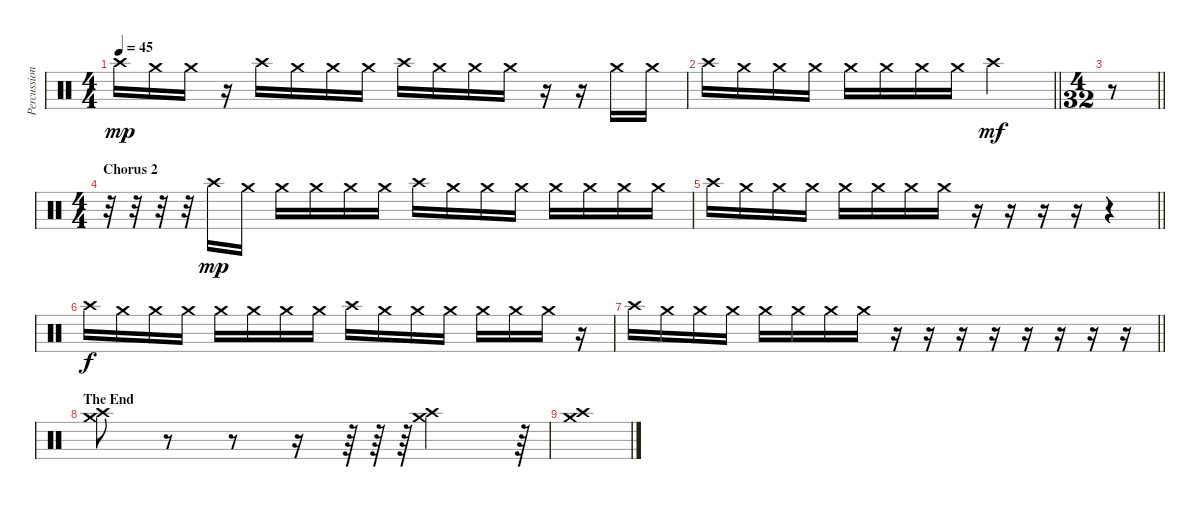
\track ("Percussioni" "Percussion") {instrument percussion}
\staff {score}
\articulation defaults
\ts (4 4)
\tempo 45
\clef neutral
\ks c "Crash high (hit)".16{dy mp} "Crash medium (hit)".16 "Crash medium (hit)".16
r.16 "Crash high (hit)".16 "Crash medium (hit)".16 "Crash medium (hit)".16 "Crash medium (hit)".16 "Crash high (hit)".16 "Crash medium (hit)".16 "Crash medium (hit)".16 "Crash medium (hit)".16 r.16 r.16 "Crash medium (hit)".16 "Crash medium (hit)".16 |
\barLineRight lightlight "Crash high (hit)".16 "Crash medium (hit)".16 "Crash medium (hit)".16 "Crash medium (hit)".16 "Crash medium (hit)".16 "Crash medium (hit)".16 "Crash medium (hit)".16 "Crash medium (hit)".16 "Crash high (hit)".2{dy mf}
|
\ts (4 32)
\barLineRight lightlight
r.8 |
\ts (4 4)
\section ("" "Chorus 2")
r.32 r.32 r.32 r.32 "Crash high (hit)".16{dy mp} "Crash medium (hit)".16 "Crash medium (hit)".16 "Crash medium (hit)".16 "Crash medium (hit)".16 "Crash medium (hit)".16 "Crash high (hit)".16 "Crash medium (hit)".16 "Crash medium (hit)".16 "Crash medium (hit)".16 "Crash medium (hit)".16 "Crash medium (hit)".16 "Crash medium (hit)".16 "Crash medium (hit)".16 |
\barLineRight lightlight "Crash high (hit)".16 "Crash medium (hit)".16 "Crash medium (hit)".16 "Crash medium (hit)".16 "Crash medium (hit)".16 "Crash medium (hit)".16 "Crash medium (hit)".16 "Crash medium (hit)".16
r.16 r.16 r.16 r.16 r.4 |
"Crash high (hit)".16{dy f} "Crash medium (hit)".16 "Crash medium (hit)".16 "Crash medium (hit)".16 "Crash medium (hit)".16 "Crash medium (hit)".16 "Crash medium (hit)".16 "Crash medium (hit)".16 "Crash high (hit)".16 "Crash medium (hit)".16 "Crash medium (hit)".16 "Crash medium (hit)".16 "Crash medium (hit)".16 "Crash medium (hit)".16 "Crash medium (hit)".16 r.16 |
\barLineRight lightlight "Crash high (hit)".16 "Crash medium (hit)".16 "Crash medium (hit)".16 "Crash medium (hit)".16 "Crash medium (hit)".16 "Crash medium (hit)".16 "Crash medium (hit)".16 "Crash medium (hit)".16
r.16 r.16 r.16 r.16 r.16 r.16 r.16 r.16 |
\section ("" "The End")
("Crash medium (hit)" "Crash high (hit)").8 r.8 r.8 r.16 r.64 r.64 r.64 ("Crash medium (hit)" "Crash high (hit)").2 r.64 |
("Crash medium (hit)" "Crash high (hit)").1
